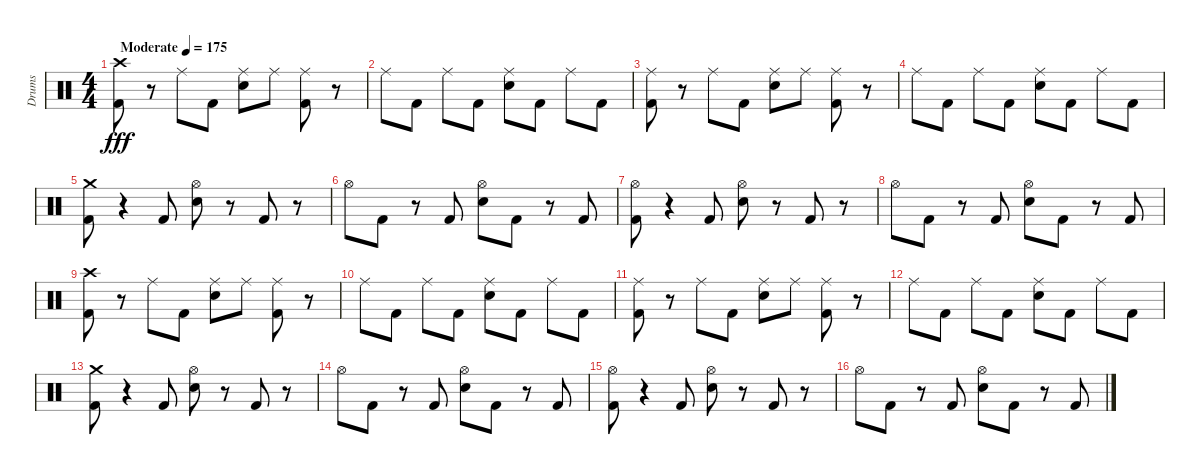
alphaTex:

\track ("Drums" "Drums") {instrument percussion}
\staff {score}
\articulation defaults
\ts (4 4)
\tempo (175 "Moderate")
\clef neutral
\ks c
("Crash high (hit)" "Kick (hit) 2").8{dy fff} r.8 "Ride (middle)".8 "Kick (hit) 2".8 ("Electric Snare (hit)" "Ride (middle)").8 "Ride (middle)".8 ("Ride (middle)" "Kick (hit) 2").8 r.8 |
"Ride (middle)".8 "Kick (hit) 2".8 "Ride (middle)".8 "Kick (hit) 2".8 ("Ride (middle)" "Electric Snare (hit)").8 "Kick (hit) 2".8 "Ride (middle)".8 "Kick (hit) 2".8 |
("Ride (middle)" "Kick (hit) 2").8 r.8 "Ride (middle)".8 "Kick (hit) 2".8 ("Electric Snare (hit)" "Ride (middle)").8 "Ride (middle)".8 ("Ride (middle)" "Kick (hit) 2").8 r.8 |
"Ride (middle)".8 "Kick (hit) 2".8 "Ride (middle)".8 "Kick (hit) 2".8 ("Ride (middle)" "Electric Snare (hit)").8 "Kick (hit) 2".8 "Ride (middle)".8 "Kick (hit) 2".8 |
("Kick (hit) 2" "Crash medium (hit)").8 r.4 "Kick (hit) 2".8 ("Hi-Hat (open)" "Electric Snare (hit)").8 r.8 "Kick (hit) 2".8 r.8 |
"Hi-Hat (open)".8 "Kick (hit) 2".8 r.8 "Kick (hit) 2".8 ("Electric Snare (hit)" "Hi-Hat (open)").8 "Kick (hit) 2".8 r.8 "Kick (hit) 2".8 |
("Hi-Hat (open)" "Kick (hit) 2").8 r.4 "Kick (hit) 2".8 ("Hi-Hat (open)" "Electric Snare (hit)").8 r.8 "Kick (hit) 2".8 r.8 |
"Hi-Hat (open)".8 "Kick (hit) 2".8 r.8 "Kick (hit) 2".8 ("Electric Snare (hit)" "Hi-Hat (open)").8 "Kick (hit) 2".8 r.8 "Kick (hit) 2".8 |
("Crash high (hit)" "Kick (hit) 2").8 r.8 "Ride (middle)".8 "Kick (hit) 2".8 ("Electric Snare (hit)" "Ride (middle)").8 "Ride (middle)".8 ("Ride (middle)" "Kick (hit) 2").8 r.8 |
"Ride (middle)".8 "Kick (hit) 2".8 "Ride (middle)".8 "Kick (hit) 2".8 ("Ride (middle)" "Electric Snare (hit)").8 "Kick (hit) 2".8 "Ride (middle)".8 "Kick (hit) 2".8 |
("Ride (middle)" "Kick (hit) 2").8 r.8 "Ride (middle)".8 "Kick (hit) 2".8 ("Electric Snare (hit)" "Ride (middle)").8 "Ride (middle)".8 ("Ride (middle)" "Kick (hit) 2").8 r.8 |
"Ride (middle)".8 "Kick (hit) 2".8 "Ride (middle)".8 "Kick (hit) 2".8 ("Ride (middle)" "Electric Snare (hit)").8 "Kick (hit) 2".8 "Ride (middle)".8 "Kick (hit) 2".8 |
("Kick (hit) 2" "Crash medium (hit)").8 r.4 "Kick (hit) 2".8 ("Hi-Hat (open)" "Electric Snare (hit)").8 r.8 "Kick (hit) 2".8 r.8 |
"Hi-Hat (open)".8 "Kick (hit) 2".8 r.8 "Kick (hit) 2".8 ("Electric Snare (hit)" "Hi-Hat (open)").8 "Kick (hit) 2".8 r.8 "Kick (hit) 2".8 |
("Hi-Hat (open)" "Kick (hit) 2").8 r.4 "Kick (hit) 2".8 ("Hi-Hat (open)" "Electric Snare (hit)").8 r.8 "Kick (hit) 2".8 r.8 |
"Hi-Hat (open)".8 "Kick (hit) 2".8 r.8 "Kick (hit) 2".8 ("Electric Snare (hit)" "Hi-Hat (open)").8 "Kick (hit) 2".8 r.8 "Kick (hit) 2".8
